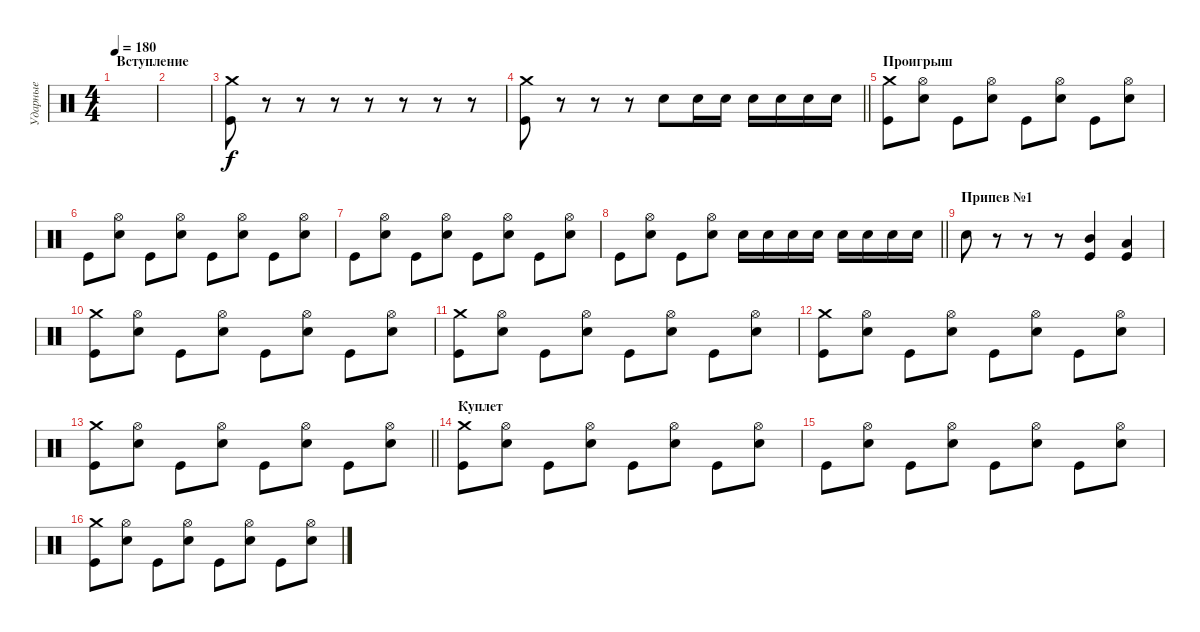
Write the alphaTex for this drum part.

\track ("Ударные" "Ударные") {instrument percussion}
\staff {score}
\articulation defaults
\ts (4 4)
\section ("" "Вступление")
\tempo 180
\clef neutral
\ks c
|
|
("Crash medium (hit)" "Kick (hit)").8 r.8 r.8 r.8 r.8 r.8 r.8 r.8 |
\barLineRight lightlight
("Crash medium (hit)" "Kick (hit)").8 r.8 r.8 r.8 "Electric Snare (hit)".8 "Electric Snare (hit)".16 "Electric Snare (hit)".16 "Electric Snare (hit)".16 "Electric Snare (hit)".16 "Electric Snare (hit)".16 "Electric Snare (hit)".16 |
\section ("" "Проигрыш")
("Crash medium (hit)" "Kick (hit)").8 ("Hi-Hat (open)" "Electric Snare (hit)").8 "Kick (hit)".8 ("Hi-Hat (open)" "Electric Snare (hit)").8 "Kick (hit)".8 ("Hi-Hat (open)" "Electric Snare (hit)").8 "Kick (hit)".8 ("Hi-Hat (open)" "Electric Snare (hit)").8 |
"Kick (hit)".8 ("Hi-Hat (open)" "Electric Snare (hit)").8 "Kick (hit)".8 ("Hi-Hat (open)" "Electric Snare (hit)").8 "Kick (hit)".8 ("Hi-Hat (open)" "Electric Snare (hit)").8 "Kick (hit)".8 ("Hi-Hat (open)" "Electric Snare (hit)").8 |
"Kick (hit)".8 ("Hi-Hat (open)" "Electric Snare (hit)").8 "Kick (hit)".8 ("Hi-Hat (open)" "Electric Snare (hit)").8 "Kick (hit)".8 ("Hi-Hat (open)" "Electric Snare (hit)").8 "Kick (hit)".8 ("Hi-Hat (open)" "Electric Snare (hit)").8 |
\barLineRight lightlight "Kick (hit)".8
("Hi-Hat (open)" "Electric Snare (hit)").8 "Kick (hit)".8 ("Hi-Hat (open)" "Electric Snare (hit)").8 "Electric Snare (hit)".16 "Electric Snare (hit)".16 "Electric Snare (hit)".16 "Electric Snare (hit)".16 "Electric Snare (hit)".16 "Electric Snare (hit)".16 "Electric Snare (hit)".16 "Electric Snare (hit)".16 |
\section ("" "Припев №1")
"Electric Snare (hit)".8 r.8 r.8 r.8 ("Mid Tom (hit)" "Kick (hit)").4 ("Low Tom (hit)" "Kick (hit)").4 |
("Crash medium (hit)" "Kick (hit)").8 ("Hi-Hat (open)" "Electric Snare (hit)").8 "Kick (hit)".8 ("Hi-Hat (open)" "Electric Snare (hit)").8 "Kick (hit)".8 ("Hi-Hat (open)" "Electric Snare (hit)").8 "Kick (hit)".8 ("Hi-Hat (open)" "Electric Snare (hit)").8 |
("Crash medium (hit)" "Kick (hit)").8 ("Hi-Hat (open)" "Electric Snare (hit)").8 "Kick (hit)".8 ("Hi-Hat (open)" "Electric Snare (hit)").8 "Kick (hit)".8 ("Hi-Hat (open)" "Electric Snare (hit)").8 "Kick (hit)".8 ("Hi-Hat (open)" "Electric Snare (hit)").8 |
("Crash medium (hit)" "Kick (hit)").8 ("Hi-Hat (open)" "Electric Snare (hit)").8 "Kick (hit)".8 ("Hi-Hat (open)" "Electric Snare (hit)").8 "Kick (hit)".8 ("Hi-Hat (open)" "Electric Snare (hit)").8 "Kick (hit)".8 ("Hi-Hat (open)" "Electric Snare (hit)").8 |
\barLineRight lightlight
("Crash medium (hit)" "Kick (hit)").8 ("Hi-Hat (open)" "Electric Snare (hit)").8 "Kick (hit)".8 ("Hi-Hat (open)" "Electric Snare (hit)").8 "Kick (hit)".8 ("Hi-Hat (open)" "Electric Snare (hit)").8 "Kick (hit)".8 ("Hi-Hat (open)" "Electric Snare (hit)").8 |
\section ("" "Куплет")
("Crash medium (hit)" "Kick (hit)").8 ("Hi-Hat (open)" "Electric Snare (hit)").8 "Kick (hit)".8 ("Hi-Hat (open)" "Electric Snare (hit)").8 "Kick (hit)".8 ("Hi-Hat (open)" "Electric Snare (hit)").8 "Kick (hit)".8 ("Hi-Hat (open)" "Electric Snare (hit)").8 |
"Kick (hit)".8 ("Hi-Hat (open)" "Electric Snare (hit)").8 "Kick (hit)".8 ("Hi-Hat (open)" "Electric Snare (hit)").8 "Kick (hit)".8 ("Hi-Hat (open)" "Electric Snare (hit)").8 "Kick (hit)".8 ("Hi-Hat (open)" "Electric Snare (hit)").8 |
("Crash medium (hit)" "Kick (hit)").8 ("Hi-Hat (open)" "Electric Snare (hit)").8 "Kick (hit)".8 ("Hi-Hat (open)" "Electric Snare (hit)").8 "Kick (hit)".8 ("Hi-Hat (open)" "Electric Snare (hit)").8 "Kick (hit)".8 ("Hi-Hat (open)" "Electric Snare (hit)").8
